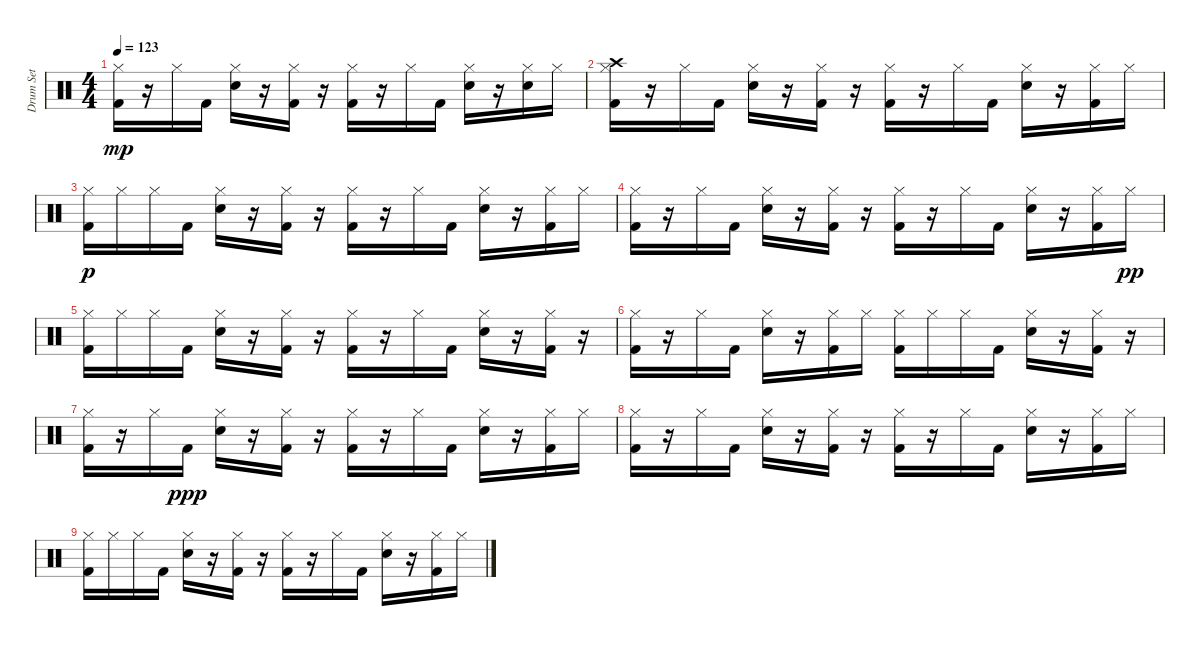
\track ("Drum Set" "Drum Set") {instrument percussion}
\staff {score}
\articulation defaults
\ts (4 4)
\tempo 123
\clef neutral
\ks c
("Kick (hit) 2" "Hi-Hat (closed)").16{dy mp} r.16 "Hi-Hat (closed)".16 "Kick (hit) 2".16 ("Snare (hit) 2" "Hi-Hat (closed)").16 r.16 ("Kick (hit) 2" "Hi-Hat (closed)").16 r.16 ("Kick (hit) 2" "Hi-Hat (closed)").16 r.16 "Hi-Hat (closed)".16 "Kick (hit) 2".16 ("Hi-Hat (closed)" "Snare (hit) 2").16 r.16 ("Hi-Hat (closed)" "Snare (hit) 2").16 "Hi-Hat (closed)".16 |
("Hi-Hat (closed)" "Kick (hit) 2" "Crash high (hit)").16 r.16 "Hi-Hat (closed)".16 "Kick (hit) 2".16 ("Snare (hit) 2" "Hi-Hat (closed)").16 r.16 ("Hi-Hat (closed)" "Kick (hit) 2").16 r.16 ("Kick (hit) 2" "Hi-Hat (closed)").16 r.16 "Hi-Hat (closed)".16 "Kick (hit) 2".16 ("Snare (hit) 2" "Hi-Hat (closed)").16 r.16 ("Kick (hit) 2" "Hi-Hat (closed)").16 "Hi-Hat (closed)".16 |
("Kick (hit) 2" "Hi-Hat (closed)").16{dy p} "Hi-Hat (closed)".16 "Hi-Hat (closed)".16 "Kick (hit) 2".16 ("Snare (hit) 2" "Hi-Hat (closed)").16 r.16 ("Kick (hit) 2" "Hi-Hat (closed)").16 r.16 ("Kick (hit) 2" "Hi-Hat (closed)").16 r.16 "Hi-Hat (closed)".16 "Kick (hit) 2".16 ("Snare (hit) 2" "Hi-Hat (closed)").16 r.16 ("Kick (hit) 2" "Hi-Hat (closed)").16 "Hi-Hat (closed)".16 |
("Kick (hit) 2" "Hi-Hat (closed)").16 r.16 "Hi-Hat (closed)".16 "Kick (hit) 2".16 ("Snare (hit) 2" "Hi-Hat (closed)").16 r.16 ("Kick (hit) 2" "Hi-Hat (closed)").16 r.16 ("Kick (hit) 2" "Hi-Hat (closed)").16 r.16 "Hi-Hat (closed)".16 "Kick (hit) 2".16 ("Snare (hit) 2" "Hi-Hat (closed)").16 r.16 ("Kick (hit) 2" "Hi-Hat (closed)").16 "Hi-Hat (closed)".16{dy pp} |
("Kick (hit) 2" "Hi-Hat (closed)").16 "Hi-Hat (closed)".16 "Hi-Hat (closed)".16 "Kick (hit) 2".16 ("Snare (hit) 2" "Hi-Hat (closed)").16 r.16 ("Kick (hit) 2" "Hi-Hat (closed)").16 r.16 ("Kick (hit) 2" "Hi-Hat (closed)").16 r.16 "Hi-Hat (closed)".16 "Kick (hit) 2".16 ("Snare (hit) 2" "Hi-Hat (closed)").16 r.16 ("Kick (hit) 2" "Hi-Hat (closed)").16 r.16 |
("Kick (hit) 2" "Hi-Hat (closed)").16 r.16 "Hi-Hat (closed)".16 "Kick (hit) 2".16 ("Snare (hit) 2" "Hi-Hat (closed)").16 r.16 ("Kick (hit) 2" "Hi-Hat (closed)").16 "Hi-Hat (closed)".16 ("Kick (hit) 2" "Hi-Hat (closed)").16 "Hi-Hat (closed)".16 "Hi-Hat (closed)".16 "Kick (hit) 2".16 ("Snare (hit) 2" "Hi-Hat (closed)").16 r.16 ("Hi-Hat (closed)" "Kick (hit) 2").16 r.16 |
("Hi-Hat (closed)" "Kick (hit) 2").16 r.16 "Hi-Hat (closed)".16 "Kick (hit) 2".16{dy ppp} ("Snare (hit) 2" "Hi-Hat (closed)").16 r.16 ("Kick (hit) 2" "Hi-Hat (closed)").16 r.16 ("Kick (hit) 2" "Hi-Hat (closed)").16 r.16 "Hi-Hat (closed)".16 "Kick (hit) 2".16 ("Snare (hit) 2" "Hi-Hat (closed)").16 r.16 ("Kick (hit) 2" "Hi-Hat (closed)").16 "Hi-Hat (closed)".16 |
("Kick (hit) 2" "Hi-Hat (closed)").16 r.16 "Hi-Hat (closed)".16 "Kick (hit) 2".16 ("Snare (hit) 2" "Hi-Hat (closed)").16 r.16 ("Kick (hit) 2" "Hi-Hat (closed)").16 r.16 ("Kick (hit) 2" "Hi-Hat (closed)").16 r.16 "Hi-Hat (closed)".16 "Kick (hit) 2".16 ("Snare (hit) 2" "Hi-Hat (closed)").16 r.16 ("Kick (hit) 2" "Hi-Hat (closed)").16 "Hi-Hat (closed)".16 |
("Hi-Hat (closed)" "Kick (hit) 2").16 "Hi-Hat (closed)".16 "Hi-Hat (closed)".16 "Kick (hit) 2".16 ("Hi-Hat (closed)" "Snare (hit) 2").16 r.16 ("Kick (hit) 2" "Hi-Hat (closed)").16 r.16 ("Kick (hit) 2" "Hi-Hat (closed)").16 r.16 "Hi-Hat (closed)".16 "Kick (hit) 2".16 ("Snare (hit) 2" "Hi-Hat (closed)").16 r.16 ("Kick (hit) 2" "Hi-Hat (closed)").16 "Hi-Hat (closed)".16
